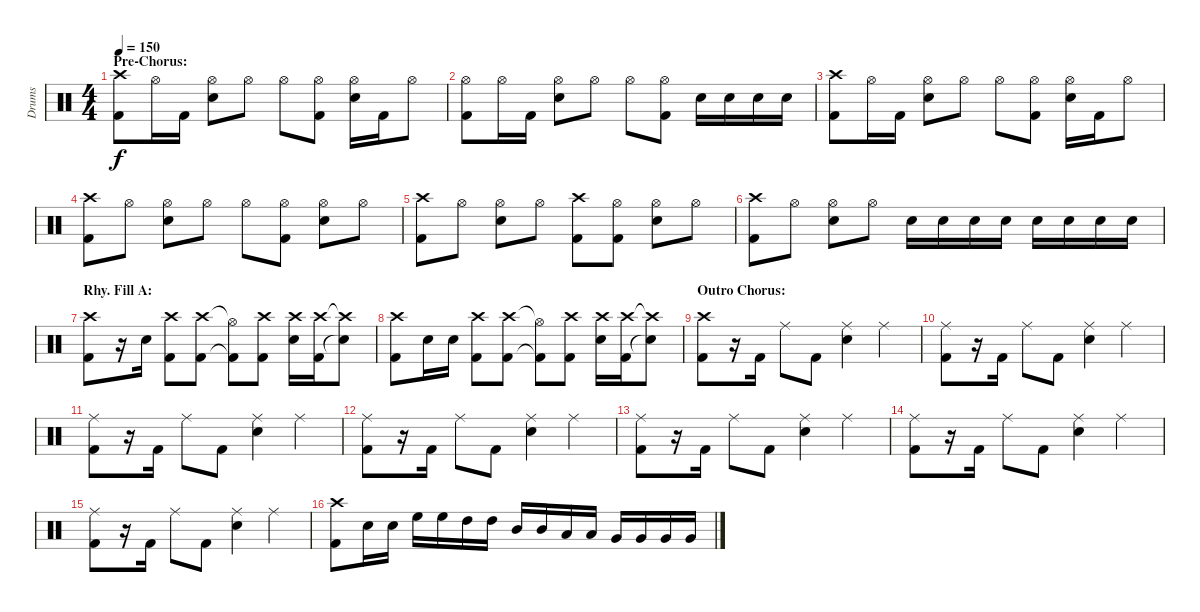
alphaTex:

\track ("Drums" "Drums") {instrument percussion}
\staff {score}
\articulation defaults
\ts (4 4)
\section ("" "Pre-Chorus:")
\tempo 150
\clef neutral
\ks c
("Crash high (hit)" "Kick (hit) 2").8{dy f} "Hi-Hat (open)".16 "Kick (hit) 2".16 ("Hi-Hat (open)" "Electric Snare (hit)").8 "Hi-Hat (open)".8 "Hi-Hat (open)".8 ("Hi-Hat (open)" "Kick (hit) 2").8 ("Hi-Hat (open)" "Electric Snare (hit)").16 "Kick (hit) 2".16 "Hi-Hat (open)".8 |
("Hi-Hat (open)" "Kick (hit) 2").8 "Hi-Hat (open)".16 "Kick (hit) 2".16 ("Hi-Hat (open)" "Electric Snare (hit)").8 "Hi-Hat (open)".8 "Hi-Hat (open)".8 ("Hi-Hat (open)" "Kick (hit) 2").8 "Electric Snare (hit)".16 "Electric Snare (hit)".16 "Electric Snare (hit)".16 "Electric Snare (hit)".16 |
("Crash high (hit)" "Kick (hit) 2").8 "Hi-Hat (open)".16 "Kick (hit) 2".16 ("Hi-Hat (open)" "Electric Snare (hit)").8 "Hi-Hat (open)".8 "Hi-Hat (open)".8 ("Hi-Hat (open)" "Kick (hit) 2").8 ("Hi-Hat (open)" "Electric Snare (hit)").16 "Kick (hit) 2".16 "Hi-Hat (open)".8 |
("Crash high (hit)" "Kick (hit) 2").8 "Hi-Hat (open)".8 ("Hi-Hat (open)" "Electric Snare (hit)").8 "Hi-Hat (open)".8 "Hi-Hat (open)".8 ("Hi-Hat (open)" "Kick (hit) 2").8 ("Hi-Hat (open)" "Electric Snare (hit)").8 "Hi-Hat (open)".8 |
("Crash high (hit)" "Kick (hit) 2").8 "Hi-Hat (open)".8 ("Hi-Hat (open)" "Electric Snare (hit)").8 "Hi-Hat (open)".8 ("Crash high (hit)" "Kick (hit) 2").8 ("Hi-Hat (open)" "Kick (hit) 2").8 ("Hi-Hat (open)" "Electric Snare (hit)").8 "Hi-Hat (open)".8 |
("Crash high (hit)" "Kick (hit) 2").8 "Hi-Hat (open)".8 ("Hi-Hat (open)" "Electric Snare (hit)").8 "Hi-Hat (open)".8 "Electric Snare (hit)".16 "Electric Snare (hit)".16 "Electric Snare (hit)".16 "Electric Snare (hit)".16 "Electric Snare (hit)".16 "Electric Snare (hit)".16 "Electric Snare (hit)".16 "Electric Snare (hit)".16 |
\section ("" "Rhy. Fill A:")
("Crash high (hit)" "Kick (hit) 2").8 r.16 "Electric Snare (hit)".16 ("Crash high (hit)" "Kick (hit) 2").8 ("Crash high (hit)" "Kick (hit) 2").8 ("Hi-Hat (open)"{t} "Kick (hit) 2"{t}).8 ("Crash high (hit)" "Kick (hit) 2").8 ("Crash high (hit)" "Electric Snare (hit)").16 ("Crash high (hit)" "Kick (hit) 2").16 ("Crash high (hit)"{t} "Snare (hit)"{t}).8 |
("Crash high (hit)" "Kick (hit) 2").8 "Electric Snare (hit)".16 "Electric Snare (hit)".16 ("Crash high (hit)" "Kick (hit) 2").8 ("Crash high (hit)" "Kick (hit) 2").8 ("Hi-Hat (open)"{t} "Kick (hit) 2"{t}).8 ("Crash high (hit)" "Kick (hit) 2").8 ("Crash high (hit)" "Electric Snare (hit)").16 ("Crash high (hit)" "Kick (hit) 2").16 ("Crash high (hit)"{t} "Snare (hit)"{t}).8 |
\section ("" "Outro Chorus:")
("Crash high (hit)" "Kick (hit) 2").8 r.16 "Kick (hit) 2".16 "Ride (middle)".8 "Kick (hit) 2".8 ("Ride (middle)" "Electric Snare (hit)").4 "Ride (middle)".4 |
("Ride (middle)" "Kick (hit) 2").8 r.16 "Kick (hit) 2".16 "Ride (middle)".8 "Kick (hit) 2".8 ("Ride (middle)" "Electric Snare (hit)").4 "Ride (middle)".4 |
("Ride (middle)" "Kick (hit) 2").8 r.16 "Kick (hit) 2".16 "Ride (middle)".8 "Kick (hit) 2".8 ("Ride (middle)" "Electric Snare (hit)").4 "Ride (middle)".4 |
("Ride (middle)" "Kick (hit) 2").8 r.16 "Kick (hit) 2".16 "Ride (middle)".8 "Kick (hit) 2".8 ("Ride (middle)" "Electric Snare (hit)").4 "Ride (middle)".4 |
("Ride (middle)" "Kick (hit) 2").8 r.16 "Kick (hit) 2".16 "Ride (middle)".8 "Kick (hit) 2".8 ("Ride (middle)" "Electric Snare (hit)").4 "Ride (middle)".4 |
("Ride (middle)" "Kick (hit) 2").8 r.16 "Kick (hit) 2".16 "Ride (middle)".8 "Kick (hit) 2".8 ("Ride (middle)" "Electric Snare (hit)").4 "Ride (middle)".4 |
("Ride (middle)" "Kick (hit) 2").8 r.16 "Kick (hit) 2".16 "Ride (middle)".8 "Kick (hit) 2".8 ("Ride (middle)" "Electric Snare (hit)").4 "Ride (middle)".4 |
("Crash high (hit)" "Kick (hit) 2").8 "Electric Snare (hit)".16 "Electric Snare (hit)".16 "High Floor Tom (hit)".16 "High Floor Tom (hit)".16 "High Tom (hit)".16 "High Tom (hit)".16 "Mid Tom (hit)".16 "Mid Tom (hit)".16 "Low Tom (hit)".16 "Low Tom (hit)".16 "Very Low Tom (hit)".16 "Very Low Tom (hit)".16 "Very Low Tom (hit)".16 "Very Low Tom (hit)".16
